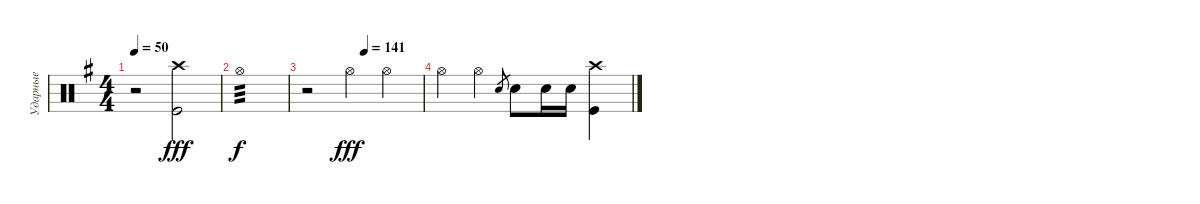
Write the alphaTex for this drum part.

\track ("Ударные" "Ударные") {instrument percussion}
\staff {score}
\articulation defaults
\ts (4 4)
\tempo 50
\clef neutral
\ks eminor
r.2{dy fff} ("Kick (hit)" "Crash high (hit)").2 |
"Hi-Hat (open)".1{tp 3 dy f} |
\tempo (141 0.5)
r.2 "Hi-Hat (open)".4{dy fff} "Hi-Hat (open)".4 |
"Hi-Hat (open)".4 "Hi-Hat (open)".4 "Snare (hit) 2".8{gr} "Snare (hit) 2".8 "Snare (hit) 2".16 "Snare (hit) 2".16 ("Kick (hit)" "Crash high (hit)").4
